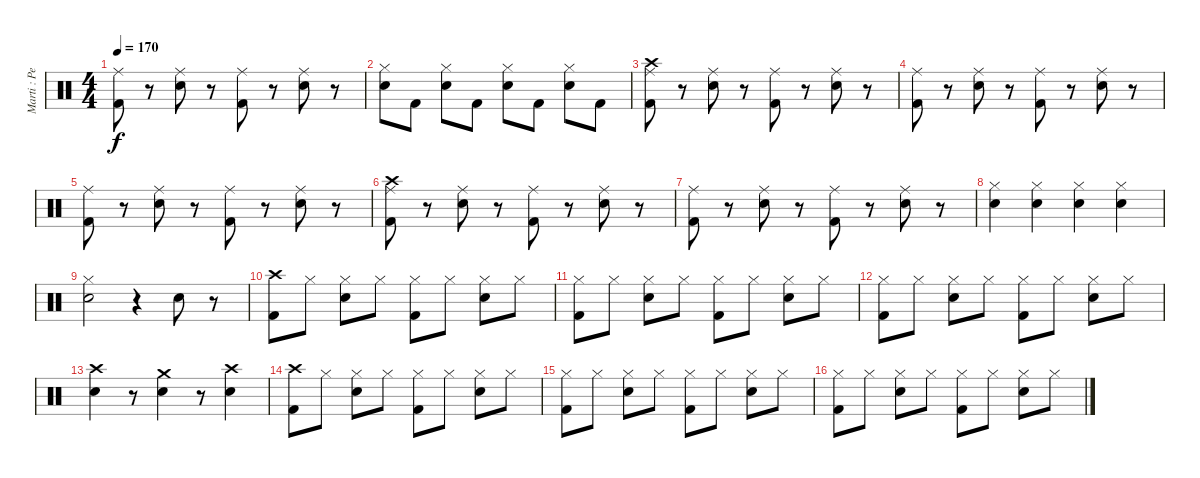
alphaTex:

\track ("Marti : Percussion" "Marti : Pe") {instrument percussion}
\staff {score}
\articulation defaults
\ts (4 4)
\tempo 170
\clef neutral
\ks c
("Kick (hit) 2" "Ride (middle)").8{dy f} r.8 ("Electric Snare (hit)" "Ride (middle)").8 r.8 ("Kick (hit) 2" "Ride (middle)").8 r.8 ("Electric Snare (hit)" "Ride (middle)").8 r.8 |
("Hi-Hat (closed)" "Electric Snare (hit)").8 "Kick (hit) 2".8 ("Hi-Hat (closed)" "Electric Snare (hit)").8 "Kick (hit) 2".8 ("Hi-Hat (closed)" "Electric Snare (hit)").8 "Kick (hit) 2".8 ("Hi-Hat (closed)" "Electric Snare (hit)").8 "Kick (hit) 2".8 |
("Crash high (hit)" "Kick (hit) 2" "Ride (middle)").8 r.8 ("Electric Snare (hit)" "Ride (middle)").8 r.8 ("Kick (hit) 2" "Ride (middle)").8 r.8 ("Electric Snare (hit)" "Ride (middle)").8 r.8 |
("Kick (hit) 2" "Ride (middle)").8 r.8 ("Electric Snare (hit)" "Ride (middle)").8 r.8 ("Kick (hit) 2" "Ride (middle)").8 r.8 ("Electric Snare (hit)" "Ride (middle)").8 r.8 |
("Kick (hit) 2" "Ride (middle)").8 r.8 ("Electric Snare (hit)" "Ride (middle)").8 r.8 ("Kick (hit) 2" "Ride (middle)").8 r.8 ("Electric Snare (hit)" "Ride (middle)").8 r.8 |
("Crash high (hit)" "Kick (hit) 2" "Ride (middle)").8 r.8 ("Electric Snare (hit)" "Ride (middle)").8 r.8 ("Kick (hit) 2" "Ride (middle)").8 r.8 ("Electric Snare (hit)" "Ride (middle)").8 r.8 |
("Kick (hit) 2" "Ride (middle)").8 r.8 ("Electric Snare (hit)" "Ride (middle)").8 r.8 ("Kick (hit) 2" "Ride (middle)").8 r.8 ("Electric Snare (hit)" "Ride (middle)").8 r.8 |
("Hi-Hat (closed)" "Electric Snare (hit)").4 ("Hi-Hat (closed)" "Electric Snare (hit)").4 ("Hi-Hat (closed)" "Electric Snare (hit)").4 ("Hi-Hat (closed)" "Electric Snare (hit)").4 |
("Hi-Hat (closed)" "Electric Snare (hit)").2 r.4 "Electric Snare (hit)".8 r.8 |
("Kick (hit) 2" "Crash high (hit)").8 "Hi-Hat (closed)".8 ("Electric Snare (hit)" "Hi-Hat (closed)").8 "Hi-Hat (closed)".8 ("Kick (hit) 2" "Hi-Hat (closed)").8 "Hi-Hat (closed)".8 ("Electric Snare (hit)" "Hi-Hat (closed)").8 "Hi-Hat (closed)".8 |
("Kick (hit) 2" "Hi-Hat (closed)").8 "Hi-Hat (closed)".8 ("Electric Snare (hit)" "Hi-Hat (closed)").8 "Hi-Hat (closed)".8 ("Kick (hit) 2" "Hi-Hat (closed)").8 "Hi-Hat (closed)".8 ("Electric Snare (hit)" "Hi-Hat (closed)").8 "Hi-Hat (closed)".8 |
("Kick (hit) 2" "Hi-Hat (closed)").8 "Hi-Hat (closed)".8 ("Electric Snare (hit)" "Hi-Hat (closed)").8 "Hi-Hat (closed)".8 ("Kick (hit) 2" "Hi-Hat (closed)").8 "Hi-Hat (closed)".8 ("Electric Snare (hit)" "Hi-Hat (closed)").8 "Hi-Hat (closed)".8 |
("Electric Snare (hit)" "Crash high (hit)").4 r.8 ("Electric Snare (hit)" "Crash medium (hit)").4 r.8 ("Electric Snare (hit)" "Crash high (hit)").4 |
("Kick (hit) 2" "Crash high (hit)").8 "Hi-Hat (closed)".8 ("Electric Snare (hit)" "Hi-Hat (closed)").8 "Hi-Hat (closed)".8 ("Kick (hit) 2" "Hi-Hat (closed)").8 "Hi-Hat (closed)".8 ("Electric Snare (hit)" "Hi-Hat (closed)").8 "Hi-Hat (closed)".8 |
("Kick (hit) 2" "Hi-Hat (closed)").8 "Hi-Hat (closed)".8 ("Electric Snare (hit)" "Hi-Hat (closed)").8 "Hi-Hat (closed)".8 ("Kick (hit) 2" "Hi-Hat (closed)").8 "Hi-Hat (closed)".8 ("Electric Snare (hit)" "Hi-Hat (closed)").8 "Hi-Hat (closed)".8 |
("Kick (hit) 2" "Hi-Hat (closed)").8 "Hi-Hat (closed)".8 ("Electric Snare (hit)" "Hi-Hat (closed)").8 "Hi-Hat (closed)".8 ("Kick (hit) 2" "Hi-Hat (closed)").8 "Hi-Hat (closed)".8 ("Electric Snare (hit)" "Hi-Hat (closed)").8 "Hi-Hat (closed)".8
